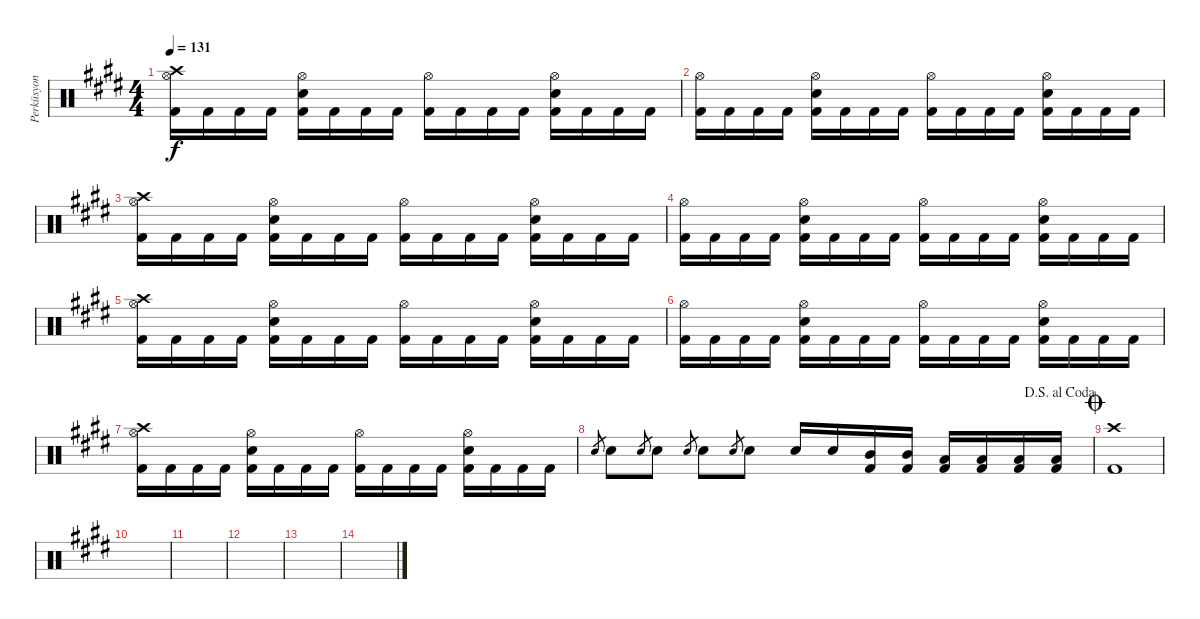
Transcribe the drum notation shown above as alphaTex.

\track ("Perküsyon" "Perküsyon") {instrument percussion}
\staff {score}
\articulation defaults
\ts (4 4)
\tempo 131
\clef neutral
\ks e
("Crash high (hit)" "Hi-Hat (open)" "Kick (hit) 2").16{dy f} "Kick (hit) 2".16 "Kick (hit) 2".16 "Kick (hit) 2".16 ("Hi-Hat (open)" "Snare (hit) 2" "Kick (hit) 2").16 "Kick (hit) 2".16 "Kick (hit) 2".16 "Kick (hit) 2".16 ("Hi-Hat (open)" "Kick (hit) 2").16 "Kick (hit) 2".16 "Kick (hit) 2".16 "Kick (hit) 2".16 ("Hi-Hat (open)" "Snare (hit) 2" "Kick (hit) 2").16 "Kick (hit) 2".16 "Kick (hit) 2".16 "Kick (hit) 2".16 |
\ks c#minor
("Hi-Hat (open)" "Kick (hit) 2").16 "Kick (hit) 2".16 "Kick (hit) 2".16 "Kick (hit) 2".16 ("Hi-Hat (open)" "Snare (hit) 2" "Kick (hit) 2").16 "Kick (hit) 2".16 "Kick (hit) 2".16 "Kick (hit) 2".16 ("Hi-Hat (open)" "Kick (hit) 2").16 "Kick (hit) 2".16 "Kick (hit) 2".16 "Kick (hit) 2".16 ("Hi-Hat (open)" "Snare (hit) 2" "Kick (hit) 2").16 "Kick (hit) 2".16 "Kick (hit) 2".16 "Kick (hit) 2".16 |
\ks e
("Crash high (hit)" "Hi-Hat (open)" "Kick (hit) 2").16 "Kick (hit) 2".16 "Kick (hit) 2".16 "Kick (hit) 2".16 ("Hi-Hat (open)" "Snare (hit) 2" "Kick (hit) 2").16 "Kick (hit) 2".16 "Kick (hit) 2".16 "Kick (hit) 2".16 ("Hi-Hat (open)" "Kick (hit) 2").16 "Kick (hit) 2".16 "Kick (hit) 2".16 "Kick (hit) 2".16 ("Hi-Hat (open)" "Snare (hit) 2" "Kick (hit) 2").16 "Kick (hit) 2".16 "Kick (hit) 2".16 "Kick (hit) 2".16 |
\ks c#minor
("Hi-Hat (open)" "Kick (hit) 2").16 "Kick (hit) 2".16 "Kick (hit) 2".16 "Kick (hit) 2".16 ("Hi-Hat (open)" "Snare (hit) 2" "Kick (hit) 2").16 "Kick (hit) 2".16 "Kick (hit) 2".16 "Kick (hit) 2".16 ("Hi-Hat (open)" "Kick (hit) 2").16 "Kick (hit) 2".16 "Kick (hit) 2".16 "Kick (hit) 2".16 ("Hi-Hat (open)" "Snare (hit) 2" "Kick (hit) 2").16 "Kick (hit) 2".16 "Kick (hit) 2".16 "Kick (hit) 2".16 |
\ks e
("Crash high (hit)" "Hi-Hat (open)" "Kick (hit) 2").16 "Kick (hit) 2".16 "Kick (hit) 2".16 "Kick (hit) 2".16 ("Hi-Hat (open)" "Snare (hit) 2" "Kick (hit) 2").16 "Kick (hit) 2".16 "Kick (hit) 2".16 "Kick (hit) 2".16 ("Hi-Hat (open)" "Kick (hit) 2").16 "Kick (hit) 2".16 "Kick (hit) 2".16 "Kick (hit) 2".16 ("Hi-Hat (open)" "Snare (hit) 2" "Kick (hit) 2").16 "Kick (hit) 2".16 "Kick (hit) 2".16 "Kick (hit) 2".16 |
\ks c#minor
("Hi-Hat (open)" "Kick (hit) 2").16 "Kick (hit) 2".16 "Kick (hit) 2".16 "Kick (hit) 2".16 ("Hi-Hat (open)" "Snare (hit) 2" "Kick (hit) 2").16 "Kick (hit) 2".16 "Kick (hit) 2".16 "Kick (hit) 2".16 ("Hi-Hat (open)" "Kick (hit) 2").16 "Kick (hit) 2".16 "Kick (hit) 2".16 "Kick (hit) 2".16 ("Hi-Hat (open)" "Snare (hit) 2" "Kick (hit) 2").16 "Kick (hit) 2".16 "Kick (hit) 2".16 "Kick (hit) 2".16 |
\ks e
("Crash high (hit)" "Hi-Hat (open)" "Kick (hit) 2").16 "Kick (hit) 2".16 "Kick (hit) 2".16 "Kick (hit) 2".16 ("Hi-Hat (open)" "Snare (hit) 2" "Kick (hit) 2").16 "Kick (hit) 2".16 "Kick (hit) 2".16 "Kick (hit) 2".16 ("Hi-Hat (open)" "Kick (hit) 2").16 "Kick (hit) 2".16 "Kick (hit) 2".16 "Kick (hit) 2".16 ("Hi-Hat (open)" "Snare (hit) 2" "Kick (hit) 2").16 "Kick (hit) 2".16 "Kick (hit) 2".16 "Kick (hit) 2".16 |
\jump dalsegnoalcoda
\ks c#minor "Snare (hit) 2".8{gr} "Snare (hit) 2".8 "Snare (hit) 2".8{gr} "Snare (hit) 2".8 "Snare (hit) 2".8{gr} "Snare (hit) 2".8 "Snare (hit) 2".8{gr} "Snare (hit) 2".8 "Snare (hit) 2".16 "Snare (hit) 2".16
("Mid Tom (hit)" "Kick (hit) 2").16 ("Mid Tom (hit)" "Kick (hit) 2").16 ("Low Tom (hit)" "Kick (hit) 2").16 ("Low Tom (hit)" "Kick (hit) 2").16 ("Low Tom (hit)" "Kick (hit) 2").16 ("Low Tom (hit)" "Kick (hit) 2").16 |
\jump coda
\ks e
("Crash high (hit)" "Kick (hit) 2").1 |
\ks c#minor
|
|
|
\ks e
|
\ks c#minor
